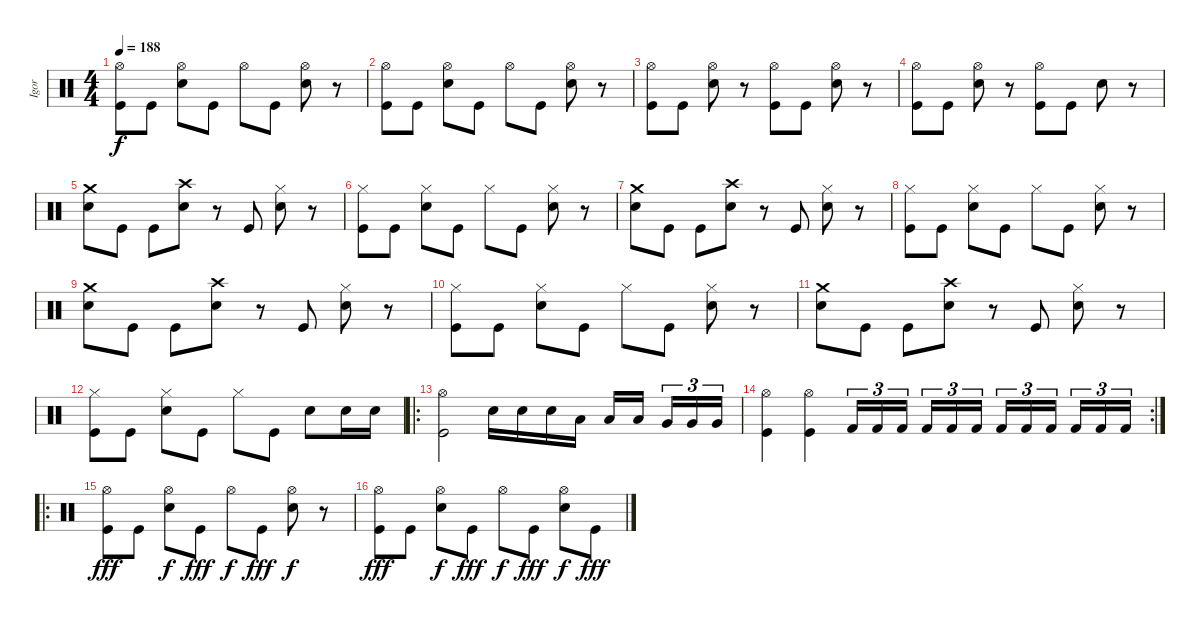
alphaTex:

\track ("Igor" "Igor") {instrument percussion}
\staff {score}
\articulation defaults
\ts (4 4)
\tempo 188
\clef neutral
\ks c
("Hi-Hat (open)" "Kick (hit)").8{dy f} "Kick (hit)".8 ("Hi-Hat (open)" "Snare (hit) 2").8 "Kick (hit)".8 "Hi-Hat (open)".8 "Kick (hit)".8 ("Hi-Hat (open)" "Snare (hit) 2").8 r.8 |
("Hi-Hat (open)" "Kick (hit)").8 "Kick (hit)".8 ("Hi-Hat (open)" "Snare (hit) 2").8 "Kick (hit)".8 "Hi-Hat (open)".8 "Kick (hit)".8 ("Hi-Hat (open)" "Snare (hit) 2").8 r.8 |
("Hi-Hat (open)" "Kick (hit)").8 "Kick (hit)".8 ("Hi-Hat (open)" "Snare (hit) 2").8 r.8 ("Hi-Hat (open)" "Kick (hit)").8 "Kick (hit)".8 ("Hi-Hat (open)" "Snare (hit) 2").8 r.8 |
("Hi-Hat (open)" "Kick (hit)").8 "Kick (hit)".8 ("Hi-Hat (open)" "Snare (hit) 2").8 r.8 ("Hi-Hat (open)" "Kick (hit)").8 "Kick (hit)".8 "Snare (hit) 2".8 r.8 |
("Crash medium (hit)" "Snare (hit) 2").8 "Kick (hit)".8 "Kick (hit)".8 ("Crash high (hit)" "Snare (hit) 2").8 r.8 "Kick (hit)".8 ("Hi-Hat (closed)" "Snare (hit) 2").8 r.8 |
("Hi-Hat (closed)" "Kick (hit)").8 "Kick (hit)".8 ("Hi-Hat (closed)" "Snare (hit) 2").8 "Kick (hit)".8 "Hi-Hat (closed)".8 "Kick (hit)".8 ("Hi-Hat (closed)" "Snare (hit) 2").8 r.8 |
("Crash medium (hit)" "Snare (hit) 2").8 "Kick (hit)".8 "Kick (hit)".8 ("Crash high (hit)" "Snare (hit) 2").8 r.8 "Kick (hit)".8 ("Hi-Hat (closed)" "Snare (hit) 2").8 r.8 |
("Hi-Hat (closed)" "Kick (hit)").8 "Kick (hit)".8 ("Hi-Hat (closed)" "Snare (hit) 2").8 "Kick (hit)".8 "Hi-Hat (closed)".8 "Kick (hit)".8 ("Hi-Hat (closed)" "Snare (hit) 2").8 r.8 |
("Crash medium (hit)" "Snare (hit) 2").8 "Kick (hit)".8 "Kick (hit)".8 ("Crash high (hit)" "Snare (hit) 2").8 r.8 "Kick (hit)".8 ("Hi-Hat (closed)" "Snare (hit) 2").8 r.8 |
("Hi-Hat (closed)" "Kick (hit)").8 "Kick (hit)".8 ("Hi-Hat (closed)" "Snare (hit) 2").8 "Kick (hit)".8 "Hi-Hat (closed)".8 "Kick (hit)".8 ("Hi-Hat (closed)" "Snare (hit) 2").8 r.8 |
("Crash medium (hit)" "Snare (hit) 2").8 "Kick (hit)".8 "Kick (hit)".8 ("Crash high (hit)" "Snare (hit) 2").8 r.8 "Kick (hit)".8 ("Hi-Hat (closed)" "Snare (hit) 2").8 r.8 |
("Hi-Hat (closed)" "Kick (hit)").8 "Kick (hit)".8 ("Hi-Hat (closed)" "Snare (hit) 2").8 "Kick (hit)".8 "Hi-Hat (closed)".8 "Kick (hit)".8 "Snare (hit) 2".8 "Snare (hit) 2".16 "Snare (hit) 2".16 |
\ro
("Hi-Hat (open)" "Kick (hit)").2 "Snare (hit) 2".16 "Snare (hit) 2".16 "Snare (hit) 2".16 "Low Tom (hit)".16 "Low Tom (hit)".16 "Low Tom (hit)".16 "Very Low Tom (hit)".16{tu (3 2)} "Very Low Tom (hit)".16{tu (3 2)} "Very Low Tom (hit)".16{tu (3 2)} |
\rc 2
("Hi-Hat (open)" "Kick (hit)").4 ("Hi-Hat (open)" "Kick (hit)").4 "Kick (hit) 2".16{tu (3 2)} "Kick (hit) 2".16{tu (3 2)} "Kick (hit) 2".16{tu (3 2)} "Kick (hit) 2".16{tu (3 2)} "Kick (hit) 2".16{tu (3 2)} "Kick (hit) 2".16{tu (3 2)} "Kick (hit) 2".16{tu (3 2)} "Kick (hit) 2".16{tu (3 2)} "Kick (hit) 2".16{tu (3 2)} "Kick (hit) 2".16{tu (3 2)} "Kick (hit) 2".16{tu (3 2)} "Kick (hit) 2".16{tu (3 2)} |
\ro
("Hi-Hat (open)" "Kick (hit)").8{dy fff} "Kick (hit)".8 ("Hi-Hat (open)" "Snare (hit) 2").8{dy f} "Kick (hit)".8{dy fff} "Hi-Hat (open)".8{dy f} "Kick (hit)".8{dy fff} ("Hi-Hat (open)" "Snare (hit) 2").8{dy f} r.8 |
("Hi-Hat (open)" "Kick (hit)").8{dy fff} "Kick (hit)".8 ("Hi-Hat (open)" "Snare (hit) 2").8{dy f} "Kick (hit)".8{dy fff} "Hi-Hat (open)".8{dy f} "Kick (hit)".8{dy fff} ("Hi-Hat (open)" "Snare (hit) 2").8{dy f} "Kick (hit)".8{dy fff}
